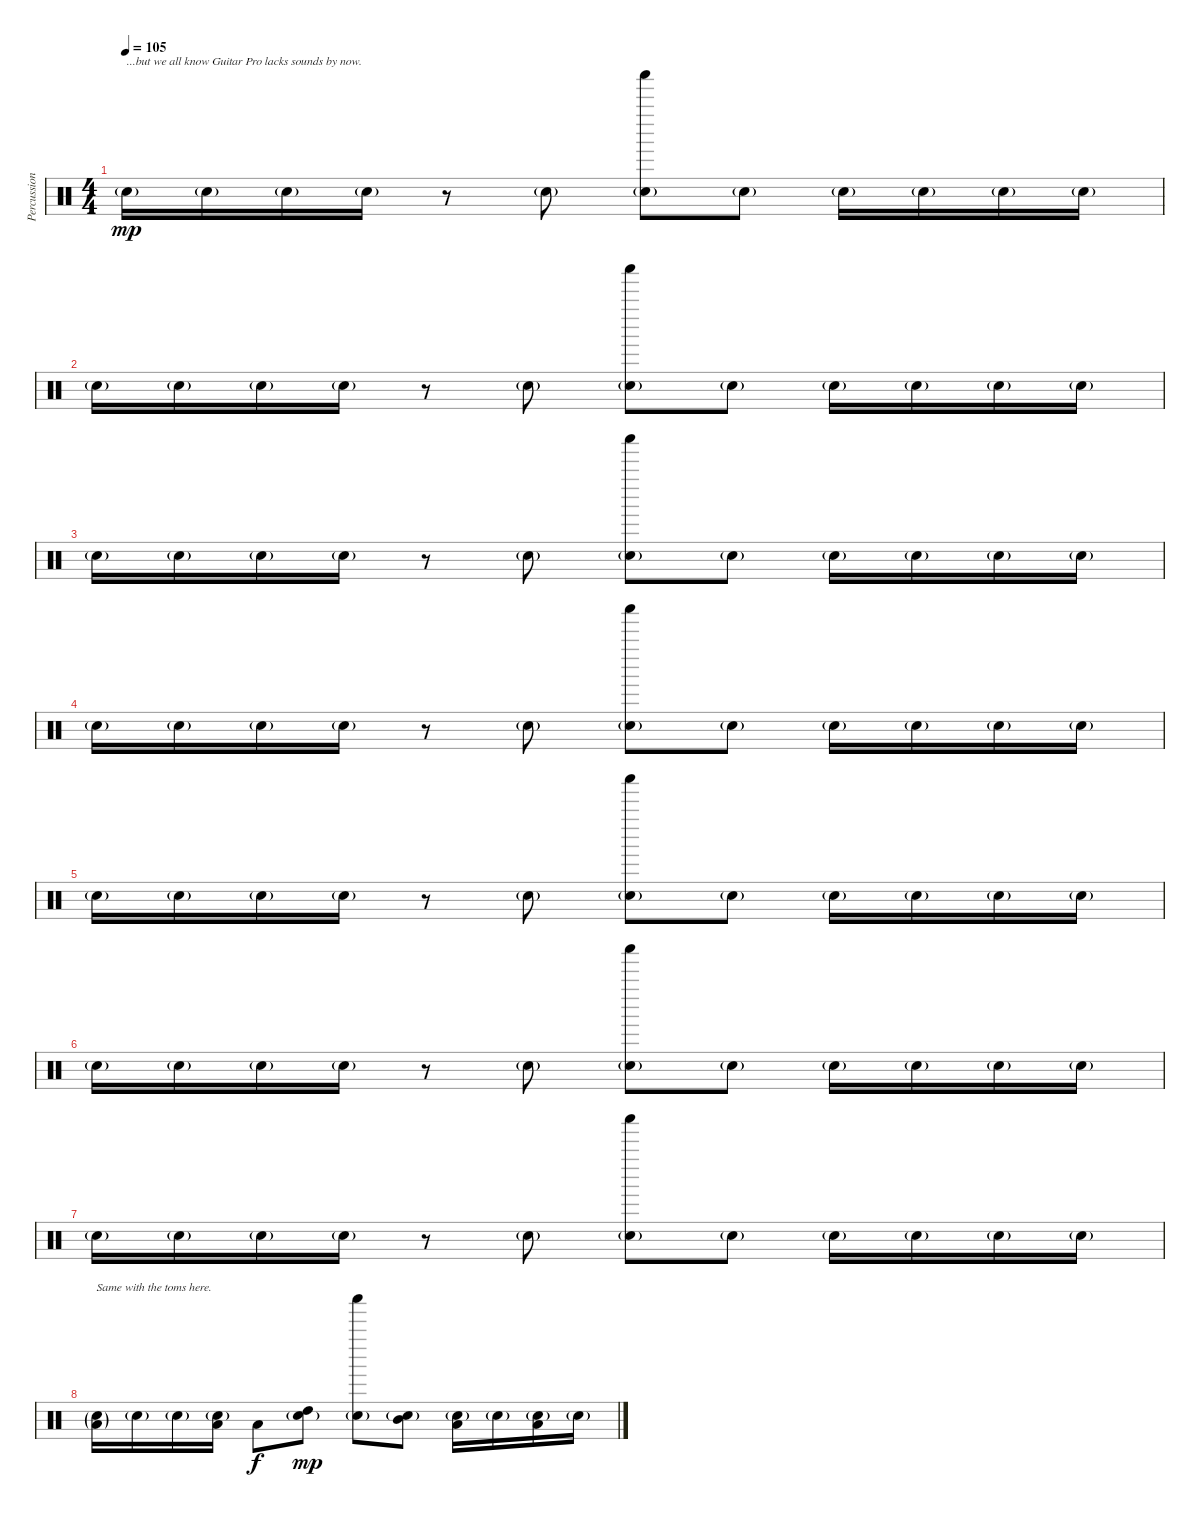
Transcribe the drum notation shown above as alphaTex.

\track ("Percussion" "Percussion") {instrument percussion}
\staff {score}
\articulation defaults
\ts (4 4)
\tempo 105
\clef neutral
\ks c "Electric Snare (hit)"{g}.16{txt "...but we all know Guitar Pro lacks sounds by now." dy mp volume 9} "Electric Snare (hit)"{g}.16 "Electric Snare (hit)"{g}.16 "Electric Snare (hit)"{g}.16
r.8 "Electric Snare (hit)"{g}.8 ("Electric Snare (hit)"{g} "Shaker (hit)").8 "Electric Snare (hit)"{g}.8 "Electric Snare (hit)"{g}.16 "Electric Snare (hit)"{g}.16 "Electric Snare (hit)"{g}.16 "Electric Snare (hit)"{g}.16 |
"Electric Snare (hit)"{g}.16 "Electric Snare (hit)"{g}.16 "Electric Snare (hit)"{g}.16 "Electric Snare (hit)"{g}.16 r.8 "Electric Snare (hit)"{g}.8 ("Electric Snare (hit)"{g} "Shaker (hit)").8 "Electric Snare (hit)"{g}.8 "Electric Snare (hit)"{g}.16 "Electric Snare (hit)"{g}.16 "Electric Snare (hit)"{g}.16 "Electric Snare (hit)"{g}.16 |
"Electric Snare (hit)"{g}.16 "Electric Snare (hit)"{g}.16 "Electric Snare (hit)"{g}.16 "Electric Snare (hit)"{g}.16 r.8 "Electric Snare (hit)"{g}.8 ("Electric Snare (hit)"{g} "Shaker (hit)").8 "Electric Snare (hit)"{g}.8 "Electric Snare (hit)"{g}.16 "Electric Snare (hit)"{g}.16 "Electric Snare (hit)"{g}.16 "Electric Snare (hit)"{g}.16 |
"Electric Snare (hit)"{g}.16 "Electric Snare (hit)"{g}.16 "Electric Snare (hit)"{g}.16 "Electric Snare (hit)"{g}.16 r.8 "Electric Snare (hit)"{g}.8 ("Electric Snare (hit)"{g} "Shaker (hit)").8 "Electric Snare (hit)"{g}.8 "Electric Snare (hit)"{g}.16 "Electric Snare (hit)"{g}.16 "Electric Snare (hit)"{g}.16 "Electric Snare (hit)"{g}.16 |
"Electric Snare (hit)"{g}.16 "Electric Snare (hit)"{g}.16 "Electric Snare (hit)"{g}.16 "Electric Snare (hit)"{g}.16 r.8 "Electric Snare (hit)"{g}.8 ("Electric Snare (hit)"{g} "Shaker (hit)").8 "Electric Snare (hit)"{g}.8 "Electric Snare (hit)"{g}.16 "Electric Snare (hit)"{g}.16 "Electric Snare (hit)"{g}.16 "Electric Snare (hit)"{g}.16 |
"Electric Snare (hit)"{g}.16 "Electric Snare (hit)"{g}.16 "Electric Snare (hit)"{g}.16 "Electric Snare (hit)"{g}.16 r.8 "Electric Snare (hit)"{g}.8 ("Electric Snare (hit)"{g} "Shaker (hit)").8 "Electric Snare (hit)"{g}.8 "Electric Snare (hit)"{g}.16 "Electric Snare (hit)"{g}.16 "Electric Snare (hit)"{g}.16 "Electric Snare (hit)"{g}.16 |
"Electric Snare (hit)"{g}.16 "Electric Snare (hit)"{g}.16 "Electric Snare (hit)"{g}.16 "Electric Snare (hit)"{g}.16 r.8 "Electric Snare (hit)"{g}.8 ("Electric Snare (hit)"{g} "Shaker (hit)").8 "Electric Snare (hit)"{g}.8 "Electric Snare (hit)"{g}.16 "Electric Snare (hit)"{g}.16 "Electric Snare (hit)"{g}.16 "Electric Snare (hit)"{g}.16 |
("Electric Snare (hit)"{g} "Low Tom (hit)"{g}).16{txt "Same with the toms here."} "Electric Snare (hit)"{g}.16 "Electric Snare (hit)"{g}.16 ("Electric Snare (hit)"{g} "Low Tom (hit)").16 "Low Tom (hit)".8{dy f} ("Electric Snare (hit)"{g} "High Tom (hit)").8{dy mp} ("Electric Snare (hit)"{g} "Shaker (hit)").8 ("Electric Snare (hit)"{g} "Mid Tom (hit)").8 ("Electric Snare (hit)"{g} "Low Tom (hit)").16 "Electric Snare (hit)"{g}.16 ("Electric Snare (hit)"{g} "Low Tom (hit)").16 "Electric Snare (hit)"{g}.16
